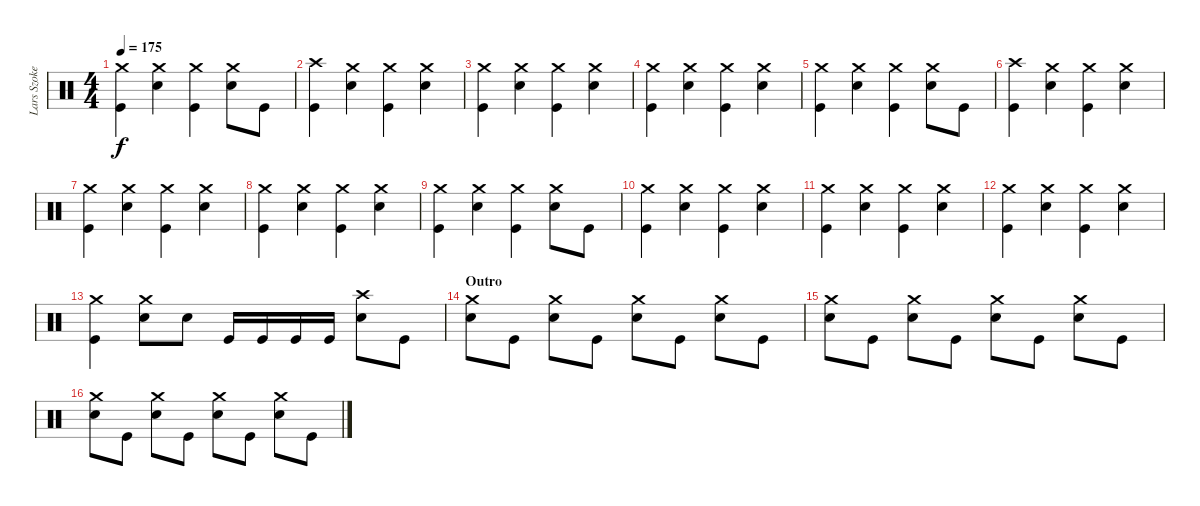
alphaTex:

\track ("Lars Szoke" "Lars Szoke") {instrument percussion}
\staff {score}
\articulation defaults
\ts (4 4)
\tempo 175
\clef neutral
\ks c
("Crash medium (hit)" "Kick (hit)").4{dy f} ("Crash medium (hit)" "Electric Snare (hit)").4 ("Crash medium (hit)" "Kick (hit)").4 ("Crash medium (hit)" "Electric Snare (hit)").8 "Kick (hit)".8 |
("Crash high (hit)" "Kick (hit)").4 ("Crash medium (hit)" "Electric Snare (hit)").4 ("Crash medium (hit)" "Kick (hit)").4 ("Crash medium (hit)" "Electric Snare (hit)").4 |
("Crash medium (hit)" "Kick (hit)").4 ("Crash medium (hit)" "Electric Snare (hit)").4 ("Crash medium (hit)" "Kick (hit)").4 ("Crash medium (hit)" "Electric Snare (hit)").4 |
("Crash medium (hit)" "Kick (hit)").4 ("Crash medium (hit)" "Electric Snare (hit)").4 ("Crash medium (hit)" "Kick (hit)").4 ("Crash medium (hit)" "Electric Snare (hit)").4 |
("Crash medium (hit)" "Kick (hit)").4 ("Crash medium (hit)" "Electric Snare (hit)").4 ("Crash medium (hit)" "Kick (hit)").4 ("Crash medium (hit)" "Electric Snare (hit)").8 "Kick (hit)".8 |
("Crash high (hit)" "Kick (hit)").4 ("Crash medium (hit)" "Electric Snare (hit)").4 ("Crash medium (hit)" "Kick (hit)").4 ("Crash medium (hit)" "Electric Snare (hit)").4 |
("Crash medium (hit)" "Kick (hit)").4 ("Crash medium (hit)" "Electric Snare (hit)").4 ("Crash medium (hit)" "Kick (hit)").4 ("Crash medium (hit)" "Electric Snare (hit)").4 |
("Crash medium (hit)" "Kick (hit)").4 ("Crash medium (hit)" "Electric Snare (hit)").4 ("Crash medium (hit)" "Kick (hit)").4 ("Crash medium (hit)" "Electric Snare (hit)").4 |
("Crash medium (hit)" "Kick (hit)").4 ("Crash medium (hit)" "Electric Snare (hit)").4 ("Crash medium (hit)" "Kick (hit)").4 ("Crash medium (hit)" "Electric Snare (hit)").8 "Kick (hit)".8 |
("Crash medium (hit)" "Kick (hit)").4 ("Crash medium (hit)" "Electric Snare (hit)").4 ("Crash medium (hit)" "Kick (hit)").4 ("Crash medium (hit)" "Electric Snare (hit)").4 |
("Crash medium (hit)" "Kick (hit)").4 ("Crash medium (hit)" "Electric Snare (hit)").4 ("Crash medium (hit)" "Kick (hit)").4 ("Crash medium (hit)" "Electric Snare (hit)").4 |
("Crash medium (hit)" "Kick (hit)").4 ("Crash medium (hit)" "Electric Snare (hit)").4 ("Crash medium (hit)" "Kick (hit)").4 ("Crash medium (hit)" "Electric Snare (hit)").4 |
("Crash medium (hit)" "Kick (hit)").4 ("Crash medium (hit)" "Electric Snare (hit)").8 "Electric Snare (hit)".8 "Kick (hit)".16 "Kick (hit)".16 "Kick (hit)".16 "Kick (hit)".16 ("Crash high (hit)" "Electric Snare (hit)").8 "Kick (hit)".8 |
\section ("" "Outro")
("Crash medium (hit)" "Electric Snare (hit)").8 "Kick (hit)".8 ("Crash medium (hit)" "Electric Snare (hit)").8 "Kick (hit)".8 ("Crash medium (hit)" "Electric Snare (hit)").8 "Kick (hit)".8 ("Crash medium (hit)" "Electric Snare (hit)").8 "Kick (hit)".8 |
("Crash medium (hit)" "Electric Snare (hit)").8{volume 13} "Kick (hit)".8 ("Crash medium (hit)" "Electric Snare (hit)").8 "Kick (hit)".8 ("Crash medium (hit)" "Electric Snare (hit)").8 "Kick (hit)".8 ("Crash medium (hit)" "Electric Snare (hit)").8 "Kick (hit)".8 |
("Crash medium (hit)" "Electric Snare (hit)").8{volume 12} "Kick (hit)".8 ("Crash medium (hit)" "Electric Snare (hit)").8 "Kick (hit)".8 ("Crash medium (hit)" "Electric Snare (hit)").8 "Kick (hit)".8 ("Crash medium (hit)" "Electric Snare (hit)").8 "Kick (hit)".8
